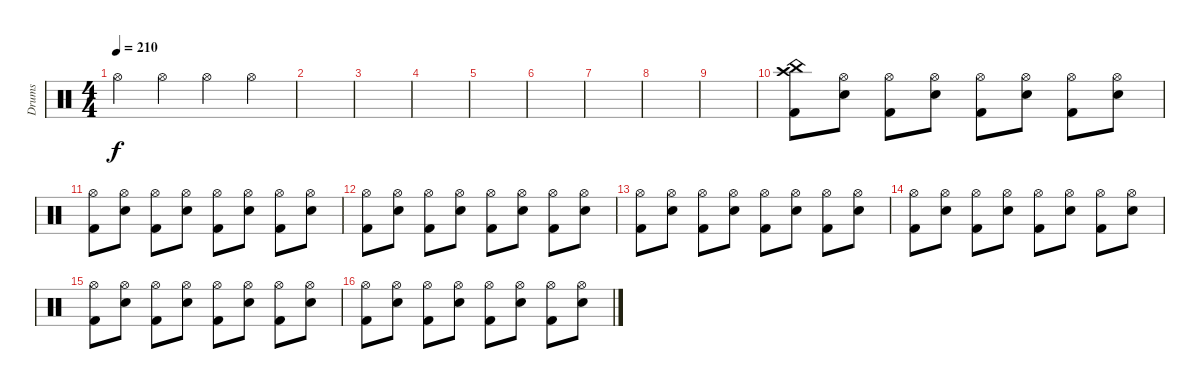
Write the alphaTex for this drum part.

\track ("Drums" "Drums") {instrument percussion}
\staff {score}
\articulation defaults
\ts (4 4)
\tempo 210
\clef neutral
\ks c "Hi-Hat (open)".4{dy f} "Hi-Hat (open)".4 "Hi-Hat (open)".4 "Hi-Hat (open)".4
|
|
|
|
|
|
|
|
|
("Kick (hit) 2" "China (hit)" "Crash high (hit)").8 ("Snare (hit) 2" "Hi-Hat (open)").8 ("Kick (hit) 2" "Hi-Hat (open)").8 ("Snare (hit) 2" "Hi-Hat (open)").8 ("Kick (hit) 2" "Hi-Hat (open)").8 ("Snare (hit) 2" "Hi-Hat (open)").8 ("Kick (hit) 2" "Hi-Hat (open)").8 ("Snare (hit) 2" "Hi-Hat (open)").8 |
("Kick (hit) 2" "Hi-Hat (open)").8 ("Snare (hit) 2" "Hi-Hat (open)").8 ("Kick (hit) 2" "Hi-Hat (open)").8 ("Snare (hit) 2" "Hi-Hat (open)").8 ("Kick (hit) 2" "Hi-Hat (open)").8 ("Snare (hit) 2" "Hi-Hat (open)").8 ("Kick (hit) 2" "Hi-Hat (open)").8 ("Snare (hit) 2" "Hi-Hat (open)").8 |
("Kick (hit) 2" "Hi-Hat (open)").8 ("Snare (hit) 2" "Hi-Hat (open)").8 ("Kick (hit) 2" "Hi-Hat (open)").8 ("Snare (hit) 2" "Hi-Hat (open)").8 ("Kick (hit) 2" "Hi-Hat (open)").8 ("Snare (hit) 2" "Hi-Hat (open)").8 ("Kick (hit) 2" "Hi-Hat (open)").8 ("Snare (hit) 2" "Hi-Hat (open)").8 |
("Kick (hit) 2" "Hi-Hat (open)").8 ("Snare (hit) 2" "Hi-Hat (open)").8 ("Kick (hit) 2" "Hi-Hat (open)").8 ("Snare (hit) 2" "Hi-Hat (open)").8 ("Kick (hit) 2" "Hi-Hat (open)").8 ("Snare (hit) 2" "Hi-Hat (open)").8 ("Kick (hit) 2" "Hi-Hat (open)").8 ("Snare (hit) 2" "Hi-Hat (open)").8 |
("Kick (hit) 2" "Hi-Hat (open)").8 ("Snare (hit) 2" "Hi-Hat (open)").8 ("Kick (hit) 2" "Hi-Hat (open)").8 ("Snare (hit) 2" "Hi-Hat (open)").8 ("Kick (hit) 2" "Hi-Hat (open)").8 ("Snare (hit) 2" "Hi-Hat (open)").8 ("Kick (hit) 2" "Hi-Hat (open)").8 ("Snare (hit) 2" "Hi-Hat (open)").8 |
("Kick (hit) 2" "Hi-Hat (open)").8 ("Snare (hit) 2" "Hi-Hat (open)").8 ("Kick (hit) 2" "Hi-Hat (open)").8 ("Snare (hit) 2" "Hi-Hat (open)").8 ("Kick (hit) 2" "Hi-Hat (open)").8 ("Snare (hit) 2" "Hi-Hat (open)").8 ("Kick (hit) 2" "Hi-Hat (open)").8 ("Snare (hit) 2" "Hi-Hat (open)").8 |
("Kick (hit) 2" "Hi-Hat (open)").8 ("Snare (hit) 2" "Hi-Hat (open)").8 ("Kick (hit) 2" "Hi-Hat (open)").8 ("Snare (hit) 2" "Hi-Hat (open)").8 ("Kick (hit) 2" "Hi-Hat (open)").8 ("Snare (hit) 2" "Hi-Hat (open)").8 ("Kick (hit) 2" "Hi-Hat (open)").8 ("Snare (hit) 2" "Hi-Hat (open)").8
